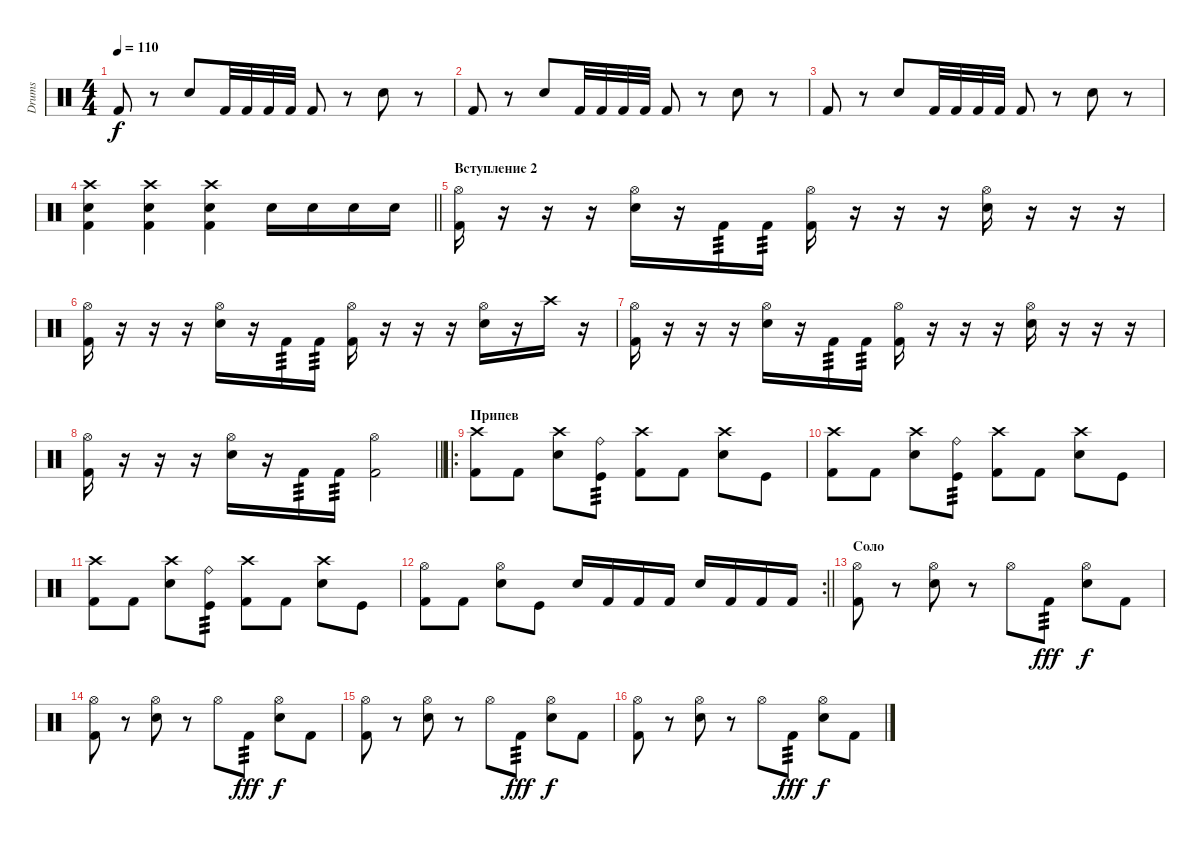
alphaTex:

\track ("Drums" "Drums") {instrument percussion}
\staff {score}
\articulation defaults
\ts (4 4)
\tempo 110
\clef neutral
\ks c "Kick (hit) 2".8{dy f}
r.8 "Electric Snare (hit)".8 "Kick (hit) 2".32 "Kick (hit) 2".32 "Kick (hit) 2".32 "Kick (hit) 2".32 "Kick (hit) 2".8 r.8 "Electric Snare (hit)".8 r.8 |
"Kick (hit) 2".8 r.8 "Electric Snare (hit)".8 "Kick (hit) 2".32 "Kick (hit) 2".32 "Kick (hit) 2".32 "Kick (hit) 2".32 "Kick (hit) 2".8 r.8 "Electric Snare (hit)".8 r.8 |
"Kick (hit) 2".8 r.8 "Electric Snare (hit)".8 "Kick (hit) 2".32 "Kick (hit) 2".32 "Kick (hit) 2".32 "Kick (hit) 2".32 "Kick (hit) 2".8 r.8 "Electric Snare (hit)".8 r.8 |
\barLineRight lightlight
("Crash high (hit)" "Kick (hit) 2" "Electric Snare (hit)").4 ("Crash high (hit)" "Kick (hit) 2" "Electric Snare (hit)").4 ("Crash high (hit)" "Kick (hit) 2" "Electric Snare (hit)").4 "Electric Snare (hit)".16 "Electric Snare (hit)".16 "Electric Snare (hit)".16 "Electric Snare (hit)".16 |
\section ("" "Вступление 2")
("Hi-Hat (open)" "Kick (hit) 2").16 r.16 r.16 r.16 ("Hi-Hat (open)" "Electric Snare (hit)").16 r.16 "Kick (hit) 2".16{tp 3} "Kick (hit) 2".16{tp 3} ("Hi-Hat (open)" "Kick (hit) 2").16 r.16 r.16 r.16 ("Hi-Hat (open)" "Electric Snare (hit)").16 r.16 r.16 r.16 |
("Hi-Hat (open)" "Kick (hit) 2").16 r.16 r.16 r.16 ("Hi-Hat (open)" "Electric Snare (hit)").16 r.16 "Kick (hit) 2".16{tp 3} "Kick (hit) 2".16{tp 3} ("Hi-Hat (open)" "Kick (hit) 2").16 r.16 r.16 r.16 ("Hi-Hat (open)" "Electric Snare (hit)").16 r.16 "Crash high (hit)".16 r.16 |
("Hi-Hat (open)" "Kick (hit) 2").16 r.16 r.16 r.16 ("Hi-Hat (open)" "Electric Snare (hit)").16 r.16 "Kick (hit) 2".16{tp 3} "Kick (hit) 2".16{tp 3} ("Hi-Hat (open)" "Kick (hit) 2").16 r.16 r.16 r.16 ("Hi-Hat (open)" "Electric Snare (hit)").16 r.16 r.16 r.16 |
\barLineRight lightlight
("Hi-Hat (open)" "Kick (hit) 2").16 r.16 r.16 r.16 ("Hi-Hat (open)" "Electric Snare (hit)").16 r.16 "Kick (hit) 2".16{tp 3} "Kick (hit) 2".16{tp 3} ("Hi-Hat (open)" "Kick (hit) 2").2 |
\ro
\section ("" "Припев")
("Crash high (hit)" "Kick (hit) 2").8 "Kick (hit) 2".8 ("Crash high (hit)" "Electric Snare (hit)").8 ("Ride (bell)" "Kick (hit)").8{tp 3} ("Crash high (hit)" "Kick (hit) 2").8 "Kick (hit) 2".8 ("Crash high (hit)" "Electric Snare (hit)").8 "Kick (hit)".8 |
("Crash high (hit)" "Kick (hit) 2").8 "Kick (hit) 2".8 ("Crash high (hit)" "Electric Snare (hit)").8 ("Ride (bell)" "Kick (hit)").8{tp 3} ("Crash high (hit)" "Kick (hit) 2").8 "Kick (hit) 2".8 ("Crash high (hit)" "Electric Snare (hit)").8 "Kick (hit)".8 |
("Crash high (hit)" "Kick (hit) 2").8 "Kick (hit) 2".8 ("Crash high (hit)" "Electric Snare (hit)").8 ("Ride (bell)" "Kick (hit)").8{tp 3} ("Crash high (hit)" "Kick (hit) 2").8 "Kick (hit) 2".8 ("Crash high (hit)" "Electric Snare (hit)").8 "Kick (hit)".8 |
\rc 2
\barLineRight lightlight
("Hi-Hat (open)" "Kick (hit) 2").8 "Kick (hit) 2".8 ("Hi-Hat (open)" "Electric Snare (hit)").8 "Kick (hit)".8 "Electric Snare (hit)".16 "Kick (hit) 2".16 "Kick (hit) 2".16 "Kick (hit) 2".16 "Electric Snare (hit)".16 "Kick (hit) 2".16 "Kick (hit) 2".16 "Kick (hit) 2".16 |
\section ("" "Соло")
("Hi-Hat (open)" "Kick (hit) 2").8 r.8 ("Hi-Hat (open)" "Electric Snare (hit)").8 r.8 "Hi-Hat (open)".8 "Kick (hit) 2".8{tp 3 dy fff} ("Hi-Hat (open)" "Electric Snare (hit)").8{dy f} "Kick (hit) 2".8 |
("Hi-Hat (open)" "Kick (hit) 2").8 r.8 ("Hi-Hat (open)" "Electric Snare (hit)").8 r.8 "Hi-Hat (open)".8 "Kick (hit) 2".8{tp 3 dy fff} ("Hi-Hat (open)" "Electric Snare (hit)").8{dy f} "Kick (hit) 2".8 |
("Hi-Hat (open)" "Kick (hit) 2").8 r.8 ("Hi-Hat (open)" "Electric Snare (hit)").8 r.8 "Hi-Hat (open)".8 "Kick (hit) 2".8{tp 3 dy fff} ("Hi-Hat (open)" "Electric Snare (hit)").8{dy f} "Kick (hit) 2".8 |
("Hi-Hat (open)" "Kick (hit) 2").8 r.8 ("Hi-Hat (open)" "Electric Snare (hit)").8 r.8 "Hi-Hat (open)".8 "Kick (hit) 2".8{tp 3 dy fff} ("Hi-Hat (open)" "Electric Snare (hit)").8{dy f} "Kick (hit) 2".8
